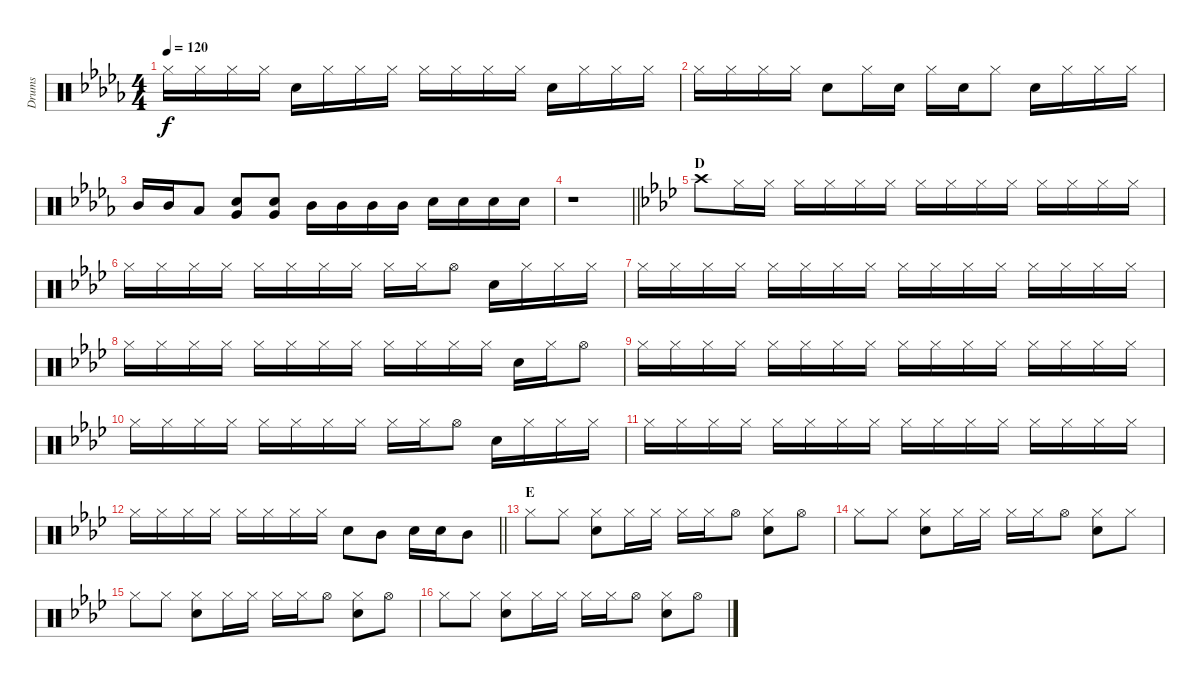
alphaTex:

\track ("Drums" "Drums") {instrument percussion}
\staff {score}
\articulation defaults
\ts (4 4)
\tempo 120
\clef neutral
\ks db "Hi-Hat (closed)".16{dy f} "Hi-Hat (closed)".16 "Hi-Hat (closed)".16 "Hi-Hat (closed)".16 "Snare (hit) 2".16 "Hi-Hat (closed)".16 "Hi-Hat (closed)".16 "Hi-Hat (closed)".16 "Hi-Hat (closed)".16 "Hi-Hat (closed)".16 "Hi-Hat (closed)".16 "Hi-Hat (closed)".16 "Snare (hit) 2".16 "Hi-Hat (closed)".16 "Hi-Hat (closed)".16 "Hi-Hat (closed)".16
|
"Hi-Hat (closed)".16 "Hi-Hat (closed)".16 "Hi-Hat (closed)".16 "Hi-Hat (closed)".16 "Snare (hit) 2".8 "Hi-Hat (closed)".16 "Snare (hit) 2".16 "Hi-Hat (closed)".16 "Snare (hit) 2".16 "Hi-Hat (closed)".8 "Snare (hit) 2".16 "Hi-Hat (closed)".16 "Hi-Hat (closed)".16 "Hi-Hat (closed)".16 |
"Mid Tom (hit)".16 "Mid Tom (hit)".16 "Low Tom (hit)".8 ("Snare (hit) 2" "Very Low Tom (hit)").8 ("Snare (hit) 2" "Very Low Tom (hit)").8 "Mid Tom (hit)".16 "Mid Tom (hit)".16 "Mid Tom (hit)".16 "Mid Tom (hit)".16 "Snare (hit) 2".16 "Snare (hit) 2".16 "Snare (hit) 2".16 "Snare (hit) 2".16 |
\barLineRight lightlight
r.1 |
\section ("" "D")
\ks ab "Crash high (hit)".8 "Hi-Hat (closed)".16 "Hi-Hat (closed)".16 "Hi-Hat (closed)".16 "Hi-Hat (closed)".16 "Hi-Hat (closed)".16 "Hi-Hat (closed)".16 "Hi-Hat (closed)".16 "Hi-Hat (closed)".16 "Hi-Hat (closed)".16 "Hi-Hat (closed)".16 "Hi-Hat (closed)".16 "Hi-Hat (closed)".16 "Hi-Hat (closed)".16 "Hi-Hat (closed)".16
|
"Hi-Hat (closed)".16 "Hi-Hat (closed)".16 "Hi-Hat (closed)".16 "Hi-Hat (closed)".16 "Hi-Hat (closed)".16 "Hi-Hat (closed)".16 "Hi-Hat (closed)".16 "Hi-Hat (closed)".16 "Hi-Hat (closed)".16 "Hi-Hat (closed)".16 "Hi-Hat (open)".8 "Snare (hit) 2".16 "Hi-Hat (closed)".16 "Hi-Hat (closed)".16 "Hi-Hat (closed)".16 |
"Hi-Hat (closed)".16 "Hi-Hat (closed)".16 "Hi-Hat (closed)".16 "Hi-Hat (closed)".16 "Hi-Hat (closed)".16 "Hi-Hat (closed)".16 "Hi-Hat (closed)".16 "Hi-Hat (closed)".16 "Hi-Hat (closed)".16 "Hi-Hat (closed)".16 "Hi-Hat (closed)".16 "Hi-Hat (closed)".16 "Hi-Hat (closed)".16 "Hi-Hat (closed)".16 "Hi-Hat (closed)".16 "Hi-Hat (closed)".16 |
"Hi-Hat (closed)".16 "Hi-Hat (closed)".16 "Hi-Hat (closed)".16 "Hi-Hat (closed)".16 "Hi-Hat (closed)".16 "Hi-Hat (closed)".16 "Hi-Hat (closed)".16 "Hi-Hat (closed)".16 "Hi-Hat (closed)".16 "Hi-Hat (closed)".16 "Hi-Hat (closed)".16 "Hi-Hat (closed)".16 "Snare (hit) 2".16 "Hi-Hat (closed)".16 "Hi-Hat (open)".8 |
"Hi-Hat (closed)".16 "Hi-Hat (closed)".16 "Hi-Hat (closed)".16 "Hi-Hat (closed)".16 "Hi-Hat (closed)".16 "Hi-Hat (closed)".16 "Hi-Hat (closed)".16 "Hi-Hat (closed)".16 "Hi-Hat (closed)".16 "Hi-Hat (closed)".16 "Hi-Hat (closed)".16 "Hi-Hat (closed)".16 "Hi-Hat (closed)".16 "Hi-Hat (closed)".16 "Hi-Hat (closed)".16 "Hi-Hat (closed)".16 |
"Hi-Hat (closed)".16 "Hi-Hat (closed)".16 "Hi-Hat (closed)".16 "Hi-Hat (closed)".16 "Hi-Hat (closed)".16 "Hi-Hat (closed)".16 "Hi-Hat (closed)".16 "Hi-Hat (closed)".16 "Hi-Hat (closed)".16 "Hi-Hat (closed)".16 "Hi-Hat (open)".8 "Snare (hit) 2".16 "Hi-Hat (closed)".16 "Hi-Hat (closed)".16 "Hi-Hat (closed)".16 |
"Hi-Hat (closed)".16 "Hi-Hat (closed)".16 "Hi-Hat (closed)".16 "Hi-Hat (closed)".16 "Hi-Hat (closed)".16 "Hi-Hat (closed)".16 "Hi-Hat (closed)".16 "Hi-Hat (closed)".16 "Hi-Hat (closed)".16 "Hi-Hat (closed)".16 "Hi-Hat (closed)".16 "Hi-Hat (closed)".16 "Hi-Hat (closed)".16 "Hi-Hat (closed)".16 "Hi-Hat (closed)".16 "Hi-Hat (closed)".16 |
\barLineRight lightlight "Hi-Hat (closed)".16 "Hi-Hat (closed)".16 "Hi-Hat (closed)".16 "Hi-Hat (closed)".16 "Hi-Hat (closed)".16 "Hi-Hat (closed)".16 "Hi-Hat (closed)".16 "Hi-Hat (closed)".16 "Snare (hit) 2".8 "Mid Tom (hit)".8 "Snare (hit) 2".16 "Snare (hit) 2".16 "Mid Tom (hit)".8
|
\section ("" "E")
"Hi-Hat (closed)".8 "Hi-Hat (closed)".8 ("Hi-Hat (closed)" "Snare (hit) 2").8 "Hi-Hat (closed)".16 "Hi-Hat (closed)".16 "Hi-Hat (closed)".16 "Hi-Hat (closed)".16 "Hi-Hat (open)".8 ("Hi-Hat (closed)" "Snare (hit) 2").8 "Hi-Hat (open)".8 |
"Hi-Hat (closed)".8 "Hi-Hat (closed)".8 ("Hi-Hat (closed)" "Snare (hit) 2").8 "Hi-Hat (closed)".16 "Hi-Hat (closed)".16 "Hi-Hat (closed)".16 "Hi-Hat (closed)".16 "Hi-Hat (open)".8 ("Hi-Hat (closed)" "Snare (hit) 2").8 "Hi-Hat (closed)".8 |
"Hi-Hat (closed)".8 "Hi-Hat (closed)".8 ("Hi-Hat (closed)" "Snare (hit) 2").8 "Hi-Hat (closed)".16 "Hi-Hat (closed)".16 "Hi-Hat (closed)".16 "Hi-Hat (closed)".16 "Hi-Hat (open)".8 ("Hi-Hat (closed)" "Snare (hit) 2").8 "Hi-Hat (open)".8 |
"Hi-Hat (closed)".8 "Hi-Hat (closed)".8 ("Hi-Hat (closed)" "Snare (hit) 2").8 "Hi-Hat (closed)".16 "Hi-Hat (closed)".16 "Hi-Hat (closed)".16 "Hi-Hat (closed)".16 "Hi-Hat (open)".8 ("Hi-Hat (closed)" "Snare (hit) 2").8 "Hi-Hat (open)".8
